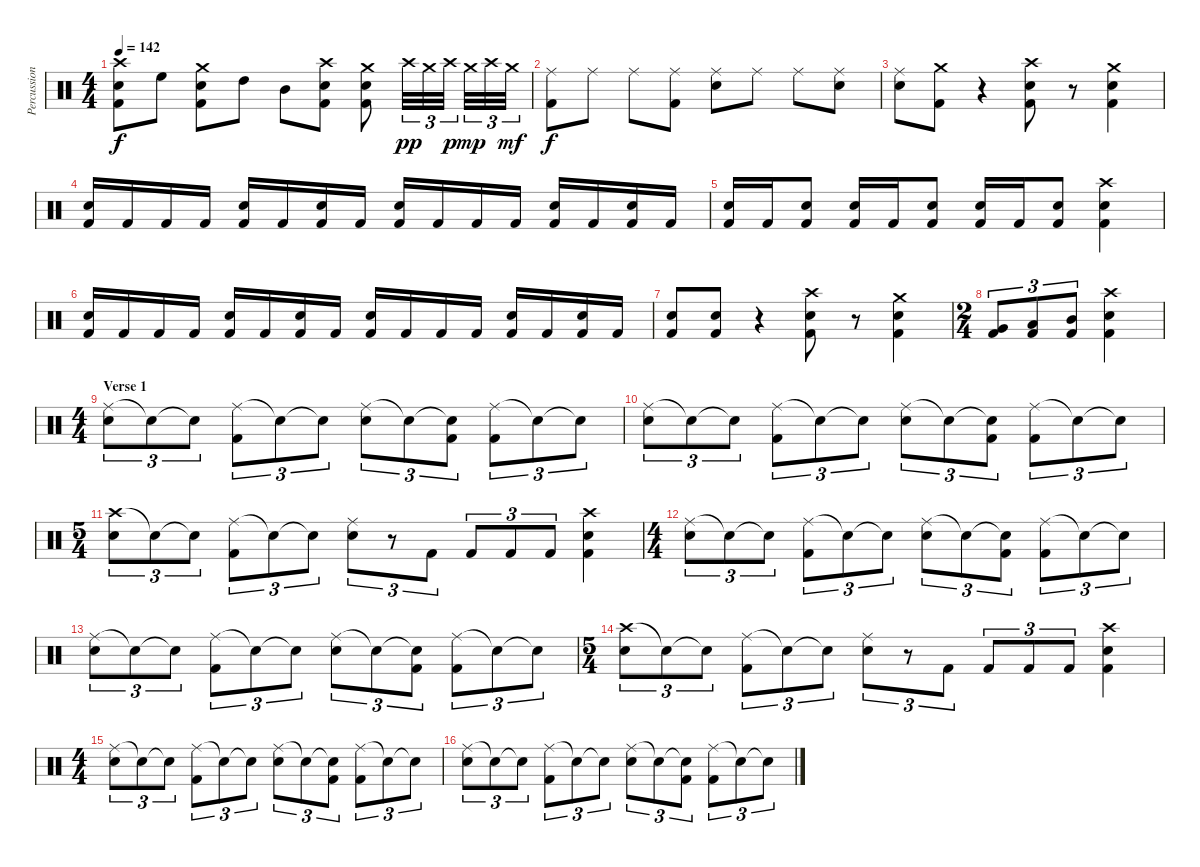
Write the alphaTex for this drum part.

\track ("Percussion" "Percussion") {instrument percussion}
\staff {score}
\articulation defaults
\ts (4 4)
\tempo 142
\clef neutral
\ks c
("Crash high (hit)" "Snare (hit) 2" "Kick (hit) 2").8{dy f} "High Floor Tom (hit)".8 ("Crash medium (hit)" "Snare (hit) 2" "Kick (hit) 2").8 "High Tom (hit)".8 "Mid Tom (hit)".8 ("Crash high (hit)" "Snare (hit) 2" "Kick (hit) 2").8 ("Crash medium (hit)" "Snare (hit) 2" "Kick (hit) 2").8 "Crash high (hit)".32{tu (3 2) dy pp} "Crash medium (hit)".32{tu (3 2)} "Crash high (hit)".32{tu (3 2) dy p} "Crash medium (hit)".32{tu (3 2) dy mp} "Crash high (hit)".32{tu (3 2)} "Crash medium (hit)".32{tu (3 2) dy mf} |
("Ride (middle)" "Kick (hit) 2").8{dy f} "Ride (middle)".8 "Ride (middle)".8 ("Ride (middle)" "Kick (hit) 2").8 ("Ride (middle)" "Snare (hit) 2").8 "Ride (middle)".8 "Ride (middle)".8 ("Ride (middle)" "Snare (hit) 2").8 |
("Ride (middle)" "Snare (hit) 2").8 ("Crash medium (hit)" "Kick (hit) 2").8 r.4 ("Crash high (hit)" "Snare (hit) 2" "Kick (hit) 2").8 r.8 ("Crash medium (hit)" "Snare (hit) 2" "Kick (hit) 2").4 |
("Snare (hit) 2" "Kick (hit) 2").16 "Kick (hit) 2".16 "Kick (hit) 2".16 "Kick (hit) 2".16 ("Snare (hit) 2" "Kick (hit) 2").16 "Kick (hit) 2".16 ("Snare (hit) 2" "Kick (hit) 2").16 "Kick (hit) 2".16 ("Snare (hit) 2" "Kick (hit) 2").16 "Kick (hit) 2".16 "Kick (hit) 2".16 "Kick (hit) 2".16 ("Snare (hit) 2" "Kick (hit) 2").16 "Kick (hit) 2".16 ("Snare (hit) 2" "Kick (hit) 2").16 "Kick (hit) 2".16 |
("Snare (hit) 2" "Kick (hit) 2").16 "Kick (hit) 2".16 ("Snare (hit) 2" "Kick (hit) 2").8 ("Snare (hit) 2" "Kick (hit) 2").16 "Kick (hit) 2".16 ("Snare (hit) 2" "Kick (hit) 2").8 ("Snare (hit) 2" "Kick (hit) 2").16 "Kick (hit) 2".16 ("Snare (hit) 2" "Kick (hit) 2").8 ("Crash high (hit)" "Snare (hit) 2" "Kick (hit) 2").4 |
("Snare (hit) 2" "Kick (hit) 2").16 "Kick (hit) 2".16 "Kick (hit) 2".16 "Kick (hit) 2".16 ("Snare (hit) 2" "Kick (hit) 2").16 "Kick (hit) 2".16 ("Snare (hit) 2" "Kick (hit) 2").16 "Kick (hit) 2".16 ("Snare (hit) 2" "Kick (hit) 2").16 "Kick (hit) 2".16 "Kick (hit) 2".16 "Kick (hit) 2".16 ("Snare (hit) 2" "Kick (hit) 2").16 "Kick (hit) 2".16 ("Snare (hit) 2" "Kick (hit) 2").16 "Kick (hit) 2".16 |
("Snare (hit) 2" "Kick (hit) 2").8 ("Snare (hit) 2" "Kick (hit) 2").8 r.4 ("Crash high (hit)" "Snare (hit) 2" "Kick (hit) 2").8 r.8 ("Crash medium (hit)" "Snare (hit) 2" "Kick (hit) 2").4 |
\ts (2 4)
("Very Low Tom (hit)" "Kick (hit) 2").8{tu (3 2)} ("Low Tom (hit)" "Kick (hit) 2").8{tu (3 2)} ("Mid Tom (hit)" "Kick (hit) 2").8{tu (3 2)} ("Crash high (hit)" "Snare (hit) 2" "Kick (hit) 2").4 |
\ts (4 4)
\section ("" "Verse 1")
("Ride (middle)" "Snare (hit) 2").8{tu (3 2)} "Snare (hit)"{t}.8{tu (3 2)} "Snare (hit)"{t}.8{tu (3 2)} ("Ride (middle)" "Kick (hit) 2").8{tu (3 2)} "Snare (hit)"{t}.8{tu (3 2)} "Snare (hit)"{t}.8{tu (3 2)} ("Ride (middle)" "Snare (hit) 2").8{tu (3 2)} "Snare (hit)"{t}.8{tu (3 2)} ("Snare (hit)"{t} "Kick (hit) 2").8{tu (3 2)} ("Ride (middle)" "Kick (hit) 2").8{tu (3 2)} "Snare (hit)"{t}.8{tu (3 2)} "Snare (hit)"{t}.8{tu (3 2)} |
("Ride (middle)" "Snare (hit) 2").8{tu (3 2)} "Snare (hit)"{t}.8{tu (3 2)} "Snare (hit)"{t}.8{tu (3 2)} ("Ride (middle)" "Kick (hit) 2").8{tu (3 2)} "Snare (hit)"{t}.8{tu (3 2)} "Snare (hit)"{t}.8{tu (3 2)} ("Ride (middle)" "Snare (hit) 2").8{tu (3 2)} "Snare (hit)"{t}.8{tu (3 2)} ("Snare (hit)"{t} "Kick (hit) 2").8{tu (3 2)} ("Ride (middle)" "Kick (hit) 2").8{tu (3 2)} "Snare (hit)"{t}.8{tu (3 2)} "Snare (hit)"{t}.8{tu (3 2)} |
\ts (5 4)
("Crash high (hit)" "Snare (hit) 2").8{tu (3 2)} "Snare (hit)"{t}.8{tu (3 2)} "Snare (hit)"{t}.8{tu (3 2)} ("Ride (middle)" "Kick (hit) 2").8{tu (3 2)} "Snare (hit)"{t}.8{tu (3 2)} "Snare (hit)"{t}.8{tu (3 2)} ("Ride (middle)" "Snare (hit) 2").8{tu (3 2)} r.8{tu (3 2)} "Kick (hit) 2".8{tu (3 2)} "Kick (hit) 2".8{tu (3 2)} "Kick (hit) 2".8{tu (3 2)} "Kick (hit) 2".8{tu (3 2)} ("Crash high (hit)" "Snare (hit) 2" "Kick (hit) 2").4 |
\ts (4 4)
("Ride (middle)" "Snare (hit) 2").8{tu (3 2)} "Snare (hit)"{t}.8{tu (3 2)} "Snare (hit)"{t}.8{tu (3 2)} ("Ride (middle)" "Kick (hit) 2").8{tu (3 2)} "Snare (hit)"{t}.8{tu (3 2)} "Snare (hit)"{t}.8{tu (3 2)} ("Ride (middle)" "Snare (hit) 2").8{tu (3 2)} "Snare (hit)"{t}.8{tu (3 2)} ("Snare (hit)"{t} "Kick (hit) 2").8{tu (3 2)} ("Ride (middle)" "Kick (hit) 2").8{tu (3 2)} "Snare (hit)"{t}.8{tu (3 2)} "Snare (hit)"{t}.8{tu (3 2)} |
("Ride (middle)" "Snare (hit) 2").8{tu (3 2)} "Snare (hit)"{t}.8{tu (3 2)} "Snare (hit)"{t}.8{tu (3 2)} ("Ride (middle)" "Kick (hit) 2").8{tu (3 2)} "Snare (hit)"{t}.8{tu (3 2)} "Snare (hit)"{t}.8{tu (3 2)} ("Ride (middle)" "Snare (hit) 2").8{tu (3 2)} "Snare (hit)"{t}.8{tu (3 2)} ("Snare (hit)"{t} "Kick (hit) 2").8{tu (3 2)} ("Ride (middle)" "Kick (hit) 2").8{tu (3 2)} "Snare (hit)"{t}.8{tu (3 2)} "Snare (hit)"{t}.8{tu (3 2)} |
\ts (5 4)
("Crash high (hit)" "Snare (hit) 2").8{tu (3 2)} "Snare (hit)"{t}.8{tu (3 2)} "Snare (hit)"{t}.8{tu (3 2)} ("Ride (middle)" "Kick (hit) 2").8{tu (3 2)} "Snare (hit)"{t}.8{tu (3 2)} "Snare (hit)"{t}.8{tu (3 2)} ("Ride (middle)" "Snare (hit) 2").8{tu (3 2)} r.8{tu (3 2)} "Kick (hit) 2".8{tu (3 2)} "Kick (hit) 2".8{tu (3 2)} "Kick (hit) 2".8{tu (3 2)} "Kick (hit) 2".8{tu (3 2)} ("Crash high (hit)" "Snare (hit) 2" "Kick (hit) 2").4 |
\ts (4 4)
("Ride (middle)" "Snare (hit) 2").8{tu (3 2)} "Snare (hit)"{t}.8{tu (3 2)} "Snare (hit)"{t}.8{tu (3 2)} ("Ride (middle)" "Kick (hit) 2").8{tu (3 2)} "Snare (hit)"{t}.8{tu (3 2)} "Snare (hit)"{t}.8{tu (3 2)} ("Ride (middle)" "Snare (hit) 2").8{tu (3 2)} "Snare (hit)"{t}.8{tu (3 2)} ("Snare (hit)"{t} "Kick (hit) 2").8{tu (3 2)} ("Ride (middle)" "Kick (hit) 2").8{tu (3 2)} "Snare (hit)"{t}.8{tu (3 2)} "Snare (hit)"{t}.8{tu (3 2)} |
("Ride (middle)" "Snare (hit) 2").8{tu (3 2)} "Snare (hit)"{t}.8{tu (3 2)} "Snare (hit)"{t}.8{tu (3 2)} ("Ride (middle)" "Kick (hit) 2").8{tu (3 2)} "Snare (hit)"{t}.8{tu (3 2)} "Snare (hit)"{t}.8{tu (3 2)} ("Ride (middle)" "Snare (hit) 2").8{tu (3 2)} "Snare (hit)"{t}.8{tu (3 2)} ("Snare (hit)"{t} "Kick (hit) 2").8{tu (3 2)} ("Ride (middle)" "Kick (hit) 2").8{tu (3 2)} "Snare (hit)"{t}.8{tu (3 2)} "Snare (hit)"{t}.8{tu (3 2)}
